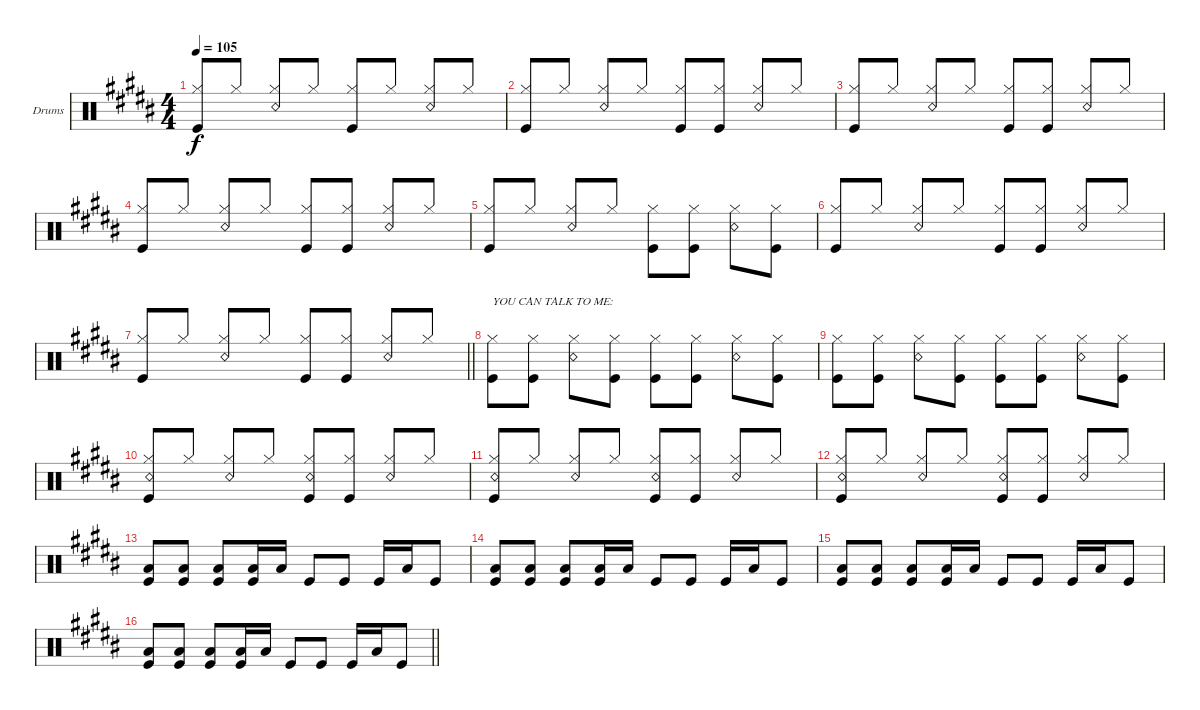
\defaultSystemsLayout 4
\bracketExtendMode groupsimilarinstruments
\firstSystemTrackNameOrientation horizontal
\otherSystemsTrackNameOrientation horizontal
\track ("Ringo Starr" "Drums") {instrument percussion}
\staff {score}
\articulation defaults
\ts (4 4)
\tempo 105
\clef neutral
\scale
0.333333
\ks b
("Hi-Hat (closed)" "Kick (hit)").8{dy f beam invert} "Hi-Hat (closed)".8 ("Hi-Hat (closed)" "Snare (rim shot)").8{beam invert} "Hi-Hat (closed)".8 ("Hi-Hat (closed)" "Kick (hit)").8{beam invert} "Hi-Hat (closed)".8 ("Hi-Hat (closed)" "Snare (rim shot)").8{beam invert} "Hi-Hat (closed)".8 |
\scale
0.333333 ("Hi-Hat (closed)" "Kick (hit)").8{beam invert} "Hi-Hat (closed)".8 ("Hi-Hat (closed)" "Snare (rim shot)").8{beam invert} "Hi-Hat (closed)".8 ("Hi-Hat (closed)" "Kick (hit)").8 ("Hi-Hat (closed)" "Kick (hit)").8 ("Hi-Hat (closed)" "Snare (rim shot)").8{beam invert} "Hi-Hat (closed)".8 |
\scale
0.333333 ("Hi-Hat (closed)" "Kick (hit)").8{beam invert} "Hi-Hat (closed)".8 ("Hi-Hat (closed)" "Snare (rim shot)").8{beam invert} "Hi-Hat (closed)".8 ("Hi-Hat (closed)" "Kick (hit)").8 ("Hi-Hat (closed)" "Kick (hit)").8 ("Hi-Hat (closed)" "Snare (rim shot)").8{beam invert} "Hi-Hat (closed)".8 |
\scale
0.333333 ("Hi-Hat (closed)" "Kick (hit)").8{beam invert} "Hi-Hat (closed)".8 ("Hi-Hat (closed)" "Snare (rim shot)").8{beam invert} "Hi-Hat (closed)".8 ("Hi-Hat (closed)" "Kick (hit)").8 ("Hi-Hat (closed)" "Kick (hit)").8 ("Hi-Hat (closed)" "Snare (rim shot)").8{beam invert} "Hi-Hat (closed)".8 |
\scale
0.333333 ("Hi-Hat (closed)" "Kick (hit)").8{beam invert} "Hi-Hat (closed)".8 ("Hi-Hat (closed)" "Snare (rim shot)").8{beam invert} "Hi-Hat (closed)".8 ("Hi-Hat (closed)" "Kick (hit)").8 ("Hi-Hat (closed)" "Kick (hit)").8 ("Hi-Hat (closed)" "Snare (rim shot)").8 ("Hi-Hat (closed)" "Kick (hit)").8 |
\scale
0.333333 ("Hi-Hat (closed)" "Kick (hit)").8{beam invert} "Hi-Hat (closed)".8 ("Hi-Hat (closed)" "Snare (rim shot)").8{beam invert} "Hi-Hat (closed)".8 ("Hi-Hat (closed)" "Kick (hit)").8 ("Hi-Hat (closed)" "Kick (hit)").8 ("Hi-Hat (closed)" "Snare (rim shot)").8{beam invert} "Hi-Hat (closed)".8 |
\scale
0.333333
\barLineRight lightlight
("Hi-Hat (closed)" "Kick (hit)").8{beam invert} "Hi-Hat (closed)".8 ("Hi-Hat (closed)" "Snare (rim shot)").8{beam invert} "Hi-Hat (closed)".8 ("Hi-Hat (closed)" "Kick (hit)").8 ("Hi-Hat (closed)" "Kick (hit)").8 ("Hi-Hat (closed)" "Snare (rim shot)").8{beam invert} "Hi-Hat (closed)".8 |
\scale
0.333333 ("Hi-Hat (closed)" "Kick (hit)").8{txt "YOU CAN TALK TO ME:"} ("Hi-Hat (closed)" "Kick (hit)").8 ("Hi-Hat (closed)" "Snare (rim shot)").8 ("Hi-Hat (closed)" "Kick (hit)").8 ("Hi-Hat (closed)" "Kick (hit)").8 ("Hi-Hat (closed)" "Kick (hit)").8 ("Hi-Hat (closed)" "Snare (rim shot)").8 ("Hi-Hat (closed)" "Kick (hit)").8 |
\scale
0.333333 ("Hi-Hat (closed)" "Kick (hit)").8 ("Hi-Hat (closed)" "Kick (hit)").8 ("Hi-Hat (closed)" "Snare (rim shot)").8 ("Hi-Hat (closed)" "Kick (hit)").8 ("Hi-Hat (closed)" "Kick (hit)").8 ("Hi-Hat (closed)" "Kick (hit)").8 ("Hi-Hat (closed)" "Snare (rim shot)").8 ("Hi-Hat (closed)" "Kick (hit)").8 |
\scale
0.333333 ("Hi-Hat (closed)" "Kick (hit)" "Snare (rim shot)").8{beam invert} "Hi-Hat (closed)".8 ("Hi-Hat (closed)" "Snare (rim shot)").8{beam invert} "Hi-Hat (closed)".8 ("Hi-Hat (closed)" "Kick (hit)" "Snare (rim shot)").8 ("Hi-Hat (closed)" "Kick (hit)").8 ("Hi-Hat (closed)" "Snare (rim shot)").8{beam invert} "Hi-Hat (closed)".8 |
\scale
0.333333 ("Hi-Hat (closed)" "Kick (hit)" "Snare (rim shot)").8{beam invert} "Hi-Hat (closed)".8 ("Hi-Hat (closed)" "Snare (rim shot)").8{beam invert} "Hi-Hat (closed)".8 ("Hi-Hat (closed)" "Kick (hit)" "Snare (rim shot)").8 ("Hi-Hat (closed)" "Kick (hit)").8 ("Hi-Hat (closed)" "Snare (rim shot)").8{beam invert} "Hi-Hat (closed)".8 |
\scale
0.333333 ("Hi-Hat (closed)" "Kick (hit)" "Snare (rim shot)").8{beam invert} "Hi-Hat (closed)".8 ("Hi-Hat (closed)" "Snare (rim shot)").8{beam invert} "Hi-Hat (closed)".8 ("Hi-Hat (closed)" "Kick (hit)" "Snare (rim shot)").8 ("Hi-Hat (closed)" "Kick (hit)").8 ("Hi-Hat (closed)" "Snare (rim shot)").8{beam invert} "Hi-Hat (closed)".8 |
\scale
0.333333 ("Kick (hit)" "Low Tom (hit)").8 ("Kick (hit)" "Low Tom (hit)").8 ("Kick (hit)" "Low Tom (hit)").8 ("Kick (hit)" "Low Tom (hit)").16 "Low Tom (hit)".16 "Kick (hit)".8 "Kick (hit)".8 "Kick (hit)".16 "Low Tom (hit)".16 "Kick (hit)".8 |
\scale
0.333333 ("Kick (hit)" "Low Tom (hit)").8 ("Kick (hit)" "Low Tom (hit)").8 ("Kick (hit)" "Low Tom (hit)").8 ("Kick (hit)" "Low Tom (hit)").16 "Low Tom (hit)".16 "Kick (hit)".8 "Kick (hit)".8 "Kick (hit)".16 "Low Tom (hit)".16 "Kick (hit)".8 |
\scale
0.333333 ("Kick (hit)" "Low Tom (hit)").8 ("Kick (hit)" "Low Tom (hit)").8 ("Kick (hit)" "Low Tom (hit)").8 ("Kick (hit)" "Low Tom (hit)").16 "Low Tom (hit)".16 "Kick (hit)".8 "Kick (hit)".8 "Kick (hit)".16 "Low Tom (hit)".16 "Kick (hit)".8 |
\barLineRight lightlight
("Kick (hit)" "Low Tom (hit)").8 ("Kick (hit)" "Low Tom (hit)").8 ("Kick (hit)" "Low Tom (hit)").8 ("Kick (hit)" "Low Tom (hit)").16 "Low Tom (hit)".16 "Kick (hit)".8 "Kick (hit)".8 "Kick (hit)".16 "Low Tom (hit)".16 "Kick (hit)".8
